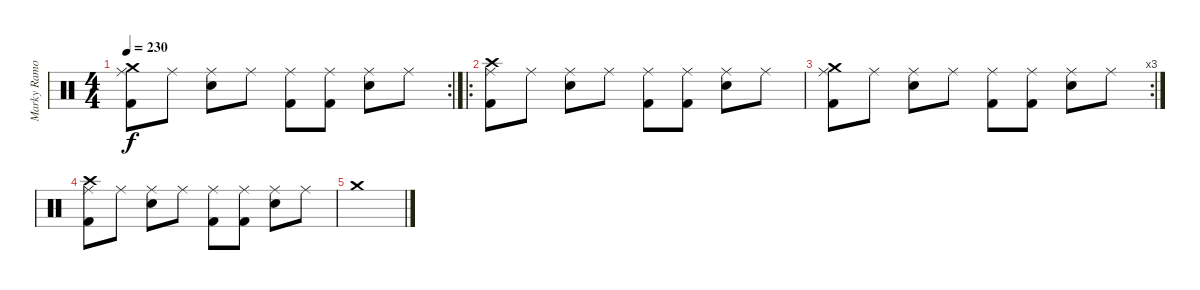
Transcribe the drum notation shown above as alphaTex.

\track ("Marky Ramone" "Marky Ramo") {instrument percussion}
\staff {score}
\articulation defaults
\rc 2
\ts (4 4)
\tempo 230
\clef neutral
\ks c
("Ride (middle)" "Kick (hit) 2" "Crash medium (hit)").8{dy f} "Ride (middle)".8 ("Ride (middle)" "Electric Snare (hit)").8 "Ride (middle)".8 ("Ride (middle)" "Kick (hit) 2").8 ("Ride (middle)" "Kick (hit) 2").8 ("Ride (middle)" "Electric Snare (hit)").8 "Ride (middle)".8 |
\ro
("Ride (middle)" "Kick (hit) 2" "Crash high (hit)").8 "Ride (middle)".8 ("Ride (middle)" "Electric Snare (hit)").8 "Ride (middle)".8 ("Ride (middle)" "Kick (hit) 2").8 ("Ride (middle)" "Kick (hit) 2").8 ("Ride (middle)" "Electric Snare (hit)").8 "Ride (middle)".8 |
\rc 3
("Ride (middle)" "Kick (hit) 2" "Crash medium (hit)").8 "Ride (middle)".8 ("Ride (middle)" "Electric Snare (hit)").8 "Ride (middle)".8 ("Ride (middle)" "Kick (hit) 2").8 ("Ride (middle)" "Kick (hit) 2").8 ("Ride (middle)" "Electric Snare (hit)").8 "Ride (middle)".8 |
("Ride (middle)" "Kick (hit) 2" "Crash high (hit)").8 "Ride (middle)".8 ("Ride (middle)" "Electric Snare (hit)").8 "Ride (middle)".8 ("Ride (middle)" "Kick (hit) 2").8 ("Ride (middle)" "Kick (hit) 2").8 ("Ride (middle)" "Electric Snare (hit)").8 "Ride (middle)".8 |
"Crash medium (hit)".1
